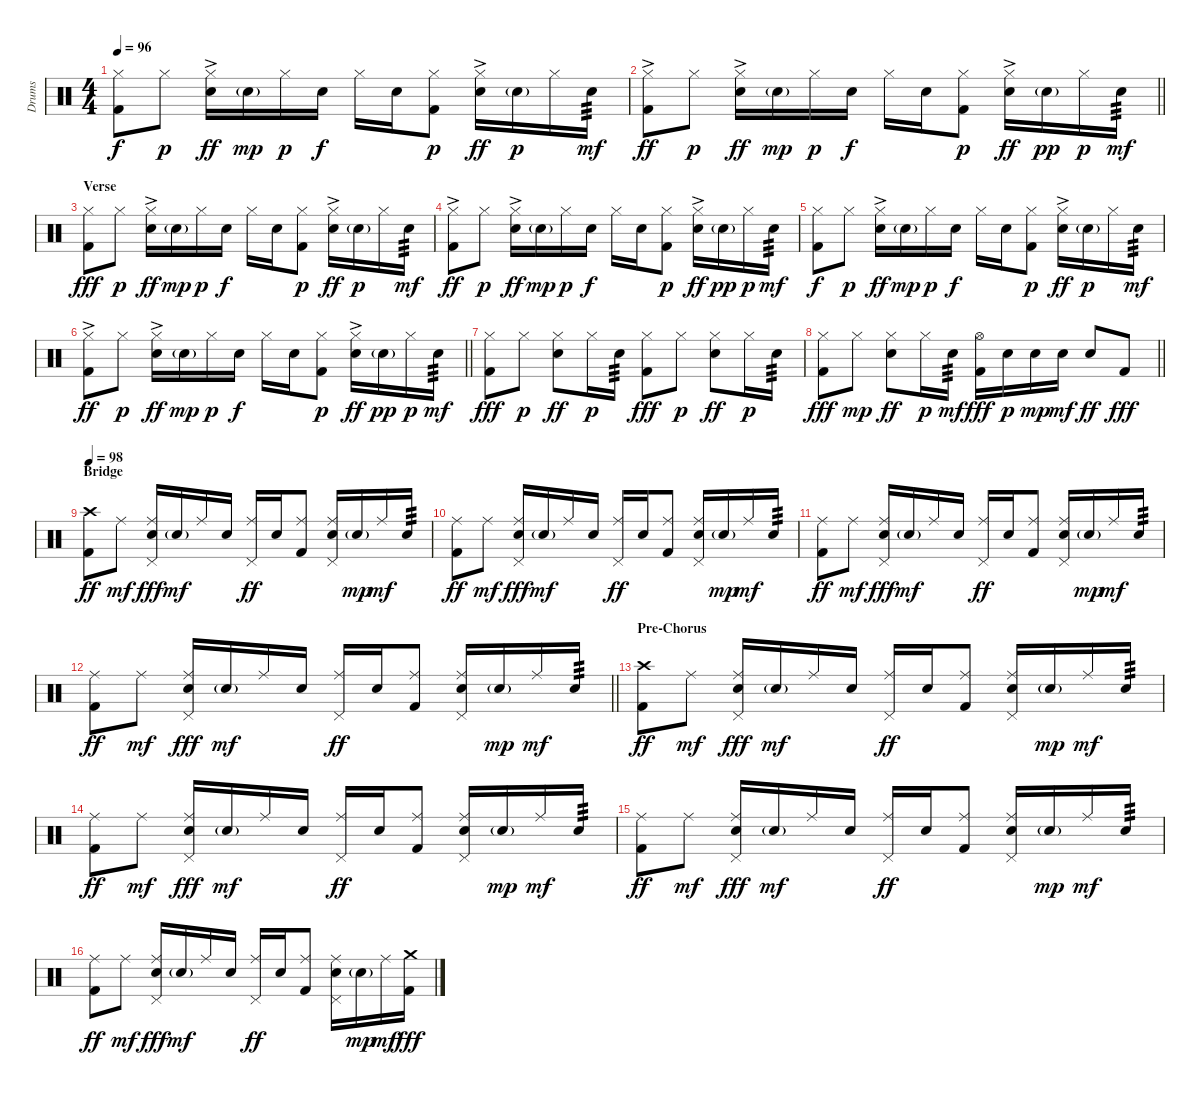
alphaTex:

\track ("Drums" "Drums") {instrument percussion}
\staff {score}
\articulation defaults
\ts (4 4)
\tempo 96
\clef neutral
\ks c
("Hi-Hat (closed)" "Kick (hit) 2").8{dy f} "Hi-Hat (closed)".8{dy p} ("Hi-Hat (closed)"{ac} "Electric Snare (hit)"{ac}).16{dy ff} "Electric Snare (hit)"{g}.16{dy mp} "Hi-Hat (closed)".16{dy p} "Electric Snare (hit)".16{dy f} "Hi-Hat (closed)".16 "Electric Snare (hit)".16 ("Hi-Hat (closed)" "Kick (hit) 2").8{dy p} ("Hi-Hat (closed)"{ac} "Electric Snare (hit)"{ac}).16{dy ff} "Electric Snare (hit)"{g}.16{dy p} "Hi-Hat (closed)".16 "Electric Snare (hit)".16{tp 3 dy mf} |
\barLineRight lightlight
("Hi-Hat (closed)"{ac} "Kick (hit) 2").8{dy ff} "Hi-Hat (closed)".8{dy p} ("Hi-Hat (closed)"{ac} "Electric Snare (hit)"{ac}).16{dy ff} "Electric Snare (hit)"{g}.16{dy mp} "Hi-Hat (closed)".16{dy p} "Electric Snare (hit)".16{dy f} "Hi-Hat (closed)".16 "Electric Snare (hit)".16 ("Hi-Hat (closed)" "Kick (hit) 2").8{dy p} ("Hi-Hat (closed)"{ac} "Electric Snare (hit)"{ac}).16{dy ff} "Electric Snare (hit)"{g}.16{dy pp} "Hi-Hat (closed)".16{dy p} "Electric Snare (hit)".16{tp 3 dy mf} |
\section ("" "Verse")
("Hi-Hat (closed)" "Kick (hit) 2").8{dy fff} "Hi-Hat (closed)".8{dy p} ("Hi-Hat (closed)"{ac} "Electric Snare (hit)"{ac}).16{dy ff} "Electric Snare (hit)"{g}.16{dy mp} "Hi-Hat (closed)".16{dy p} "Electric Snare (hit)".16{dy f} "Hi-Hat (closed)".16 "Electric Snare (hit)".16 ("Hi-Hat (closed)" "Kick (hit) 2").8{dy p} ("Hi-Hat (closed)"{ac} "Electric Snare (hit)"{ac}).16{dy ff} "Electric Snare (hit)"{g}.16{dy p} "Hi-Hat (closed)".16 "Electric Snare (hit)".16{tp 3 dy mf} |
("Hi-Hat (closed)"{ac} "Kick (hit) 2").8{dy ff} "Hi-Hat (closed)".8{dy p} ("Hi-Hat (closed)"{ac} "Electric Snare (hit)"{ac}).16{dy ff} "Electric Snare (hit)"{g}.16{dy mp} "Hi-Hat (closed)".16{dy p} "Electric Snare (hit)".16{dy f} "Hi-Hat (closed)".16 "Electric Snare (hit)".16 ("Hi-Hat (closed)" "Kick (hit) 2").8{dy p} ("Hi-Hat (closed)"{ac} "Electric Snare (hit)"{ac}).16{dy ff} "Electric Snare (hit)"{g}.16{dy pp} "Hi-Hat (closed)".16{dy p} "Electric Snare (hit)".16{tp 3 dy mf} |
("Hi-Hat (closed)" "Kick (hit) 2").8{dy f} "Hi-Hat (closed)".8{dy p} ("Hi-Hat (closed)"{ac} "Electric Snare (hit)"{ac}).16{dy ff} "Electric Snare (hit)"{g}.16{dy mp} "Hi-Hat (closed)".16{dy p} "Electric Snare (hit)".16{dy f} "Hi-Hat (closed)".16 "Electric Snare (hit)".16 ("Hi-Hat (closed)" "Kick (hit) 2").8{dy p} ("Hi-Hat (closed)"{ac} "Electric Snare (hit)"{ac}).16{dy ff} "Electric Snare (hit)"{g}.16{dy p} "Hi-Hat (closed)".16 "Electric Snare (hit)".16{tp 3 dy mf} |
\barLineRight lightlight
("Hi-Hat (closed)"{ac} "Kick (hit) 2").8{dy ff} "Hi-Hat (closed)".8{dy p} ("Hi-Hat (closed)"{ac} "Electric Snare (hit)"{ac}).16{dy ff} "Electric Snare (hit)"{g}.16{dy mp} "Hi-Hat (closed)".16{dy p} "Electric Snare (hit)".16{dy f} "Hi-Hat (closed)".16 "Electric Snare (hit)".16 ("Hi-Hat (closed)" "Kick (hit) 2").8{dy p} ("Hi-Hat (closed)"{ac} "Electric Snare (hit)"{ac}).16{dy ff} "Electric Snare (hit)"{g}.16{dy pp} "Hi-Hat (closed)".16{dy p} "Electric Snare (hit)".16{tp 3 dy mf} |
("Hi-Hat (closed)" "Kick (hit) 2").8{dy fff} "Hi-Hat (closed)".8{dy p} ("Hi-Hat (closed)" "Electric Snare (hit)").8{dy ff} "Hi-Hat (closed)".16{dy p} "Electric Snare (hit)".16{tp 3} ("Hi-Hat (closed)" "Kick (hit) 2").8{dy fff} "Hi-Hat (closed)".8{dy p} ("Hi-Hat (closed)" "Electric Snare (hit)").8{dy ff} "Hi-Hat (closed)".16{dy p} "Electric Snare (hit)".16{tp 3} |
\barLineRight lightlight
("Hi-Hat (closed)" "Kick (hit) 2").8{dy fff} "Hi-Hat (closed)".8{dy mp} ("Hi-Hat (closed)" "Electric Snare (hit)").8{dy ff} "Hi-Hat (closed)".16{dy p} "Electric Snare (hit)".16{tp 3 dy mf} ("Hi-Hat (open)" "Kick (hit) 2").16{dy fff} "Electric Snare (hit)".16{dy p} "Electric Snare (hit)".16{dy mp} "Electric Snare (hit)".16{dy mf} "Electric Snare (hit)".8{dy ff} "Kick (hit) 2".8{dy fff} |
\section ("" "Bridge")
\tempo 98
("Crash high (hit)" "Kick (hit) 2").8{dy ff} "Ride (middle)".8{dy mf} ("Ride (middle)" "Pedal Hi-Hat (hit)" "Electric Snare (hit)").16{dy fff} "Electric Snare (hit)"{g}.16{dy mf} "Ride (middle)".16 "Electric Snare (hit)".16 ("Ride (middle)" "Pedal Hi-Hat (hit)").16{dy ff} "Electric Snare (hit)".16 ("Ride (middle)" "Kick (hit) 2").8 ("Ride (middle)" "Pedal Hi-Hat (hit)" "Electric Snare (hit)").16 "Electric Snare (hit)"{g}.16{dy mp} "Ride (middle)".16{dy mf} "Electric Snare (hit)".16{tp 3} |
("Ride (middle)" "Kick (hit) 2").8{dy ff} "Ride (middle)".8{dy mf} ("Ride (middle)" "Pedal Hi-Hat (hit)" "Electric Snare (hit)").16{dy fff} "Electric Snare (hit)"{g}.16{dy mf} "Ride (middle)".16 "Electric Snare (hit)".16 ("Ride (middle)" "Pedal Hi-Hat (hit)").16{dy ff} "Electric Snare (hit)".16 ("Ride (middle)" "Kick (hit) 2").8 ("Ride (middle)" "Pedal Hi-Hat (hit)" "Electric Snare (hit)").16 "Electric Snare (hit)"{g}.16{dy mp} "Ride (middle)".16{dy mf} "Electric Snare (hit)".16{tp 3} |
("Ride (middle)" "Kick (hit) 2").8{dy ff} "Ride (middle)".8{dy mf} ("Ride (middle)" "Pedal Hi-Hat (hit)" "Electric Snare (hit)").16{dy fff} "Electric Snare (hit)"{g}.16{dy mf} "Ride (middle)".16 "Electric Snare (hit)".16 ("Ride (middle)" "Pedal Hi-Hat (hit)").16{dy ff} "Electric Snare (hit)".16 ("Ride (middle)" "Kick (hit) 2").8 ("Ride (middle)" "Pedal Hi-Hat (hit)" "Electric Snare (hit)").16 "Electric Snare (hit)"{g}.16{dy mp} "Ride (middle)".16{dy mf} "Electric Snare (hit)".16{tp 3} |
\barLineRight lightlight
("Ride (middle)" "Kick (hit) 2").8{dy ff} "Ride (middle)".8{dy mf} ("Ride (middle)" "Pedal Hi-Hat (hit)" "Electric Snare (hit)").16{dy fff} "Electric Snare (hit)"{g}.16{dy mf} "Ride (middle)".16 "Electric Snare (hit)".16 ("Ride (middle)" "Pedal Hi-Hat (hit)").16{dy ff} "Electric Snare (hit)".16 ("Ride (middle)" "Kick (hit) 2").8 ("Ride (middle)" "Pedal Hi-Hat (hit)" "Electric Snare (hit)").16 "Electric Snare (hit)"{g}.16{dy mp} "Ride (middle)".16{dy mf} "Electric Snare (hit)".16{tp 3} |
\section ("" "Pre-Chorus")
("Crash high (hit)" "Kick (hit) 2").8{dy ff} "Ride (middle)".8{dy mf} ("Ride (middle)" "Pedal Hi-Hat (hit)" "Electric Snare (hit)").16{dy fff} "Electric Snare (hit)"{g}.16{dy mf} "Ride (middle)".16 "Electric Snare (hit)".16 ("Ride (middle)" "Pedal Hi-Hat (hit)").16{dy ff} "Electric Snare (hit)".16 ("Ride (middle)" "Kick (hit) 2").8 ("Ride (middle)" "Pedal Hi-Hat (hit)" "Electric Snare (hit)").16 "Electric Snare (hit)"{g}.16{dy mp} "Ride (middle)".16{dy mf} "Electric Snare (hit)".16{tp 3} |
("Ride (middle)" "Kick (hit) 2").8{dy ff} "Ride (middle)".8{dy mf} ("Ride (middle)" "Pedal Hi-Hat (hit)" "Electric Snare (hit)").16{dy fff} "Electric Snare (hit)"{g}.16{dy mf} "Ride (middle)".16 "Electric Snare (hit)".16 ("Ride (middle)" "Pedal Hi-Hat (hit)").16{dy ff} "Electric Snare (hit)".16 ("Ride (middle)" "Kick (hit) 2").8 ("Ride (middle)" "Pedal Hi-Hat (hit)" "Electric Snare (hit)").16 "Electric Snare (hit)"{g}.16{dy mp} "Ride (middle)".16{dy mf} "Electric Snare (hit)".16{tp 3} |
("Ride (middle)" "Kick (hit) 2").8{dy ff} "Ride (middle)".8{dy mf} ("Ride (middle)" "Pedal Hi-Hat (hit)" "Electric Snare (hit)").16{dy fff} "Electric Snare (hit)"{g}.16{dy mf} "Ride (middle)".16 "Electric Snare (hit)".16 ("Ride (middle)" "Pedal Hi-Hat (hit)").16{dy ff} "Electric Snare (hit)".16 ("Ride (middle)" "Kick (hit) 2").8 ("Ride (middle)" "Pedal Hi-Hat (hit)" "Electric Snare (hit)").16 "Electric Snare (hit)"{g}.16{dy mp} "Ride (middle)".16{dy mf} "Electric Snare (hit)".16{tp 3} |
("Ride (middle)" "Kick (hit) 2").8{dy ff} "Ride (middle)".8{dy mf} ("Ride (middle)" "Pedal Hi-Hat (hit)" "Electric Snare (hit)").16{dy fff} "Electric Snare (hit)"{g}.16{dy mf} "Ride (middle)".16 "Electric Snare (hit)".16 ("Ride (middle)" "Pedal Hi-Hat (hit)").16{dy ff} "Electric Snare (hit)".16 ("Ride (middle)" "Kick (hit) 2").8 ("Ride (middle)" "Pedal Hi-Hat (hit)" "Electric Snare (hit)").16 "Electric Snare (hit)"{g}.16{dy mp} "Ride (middle)".16{dy mf} ("Crash medium (hit)" "Kick (hit) 2").16{dy fff}
